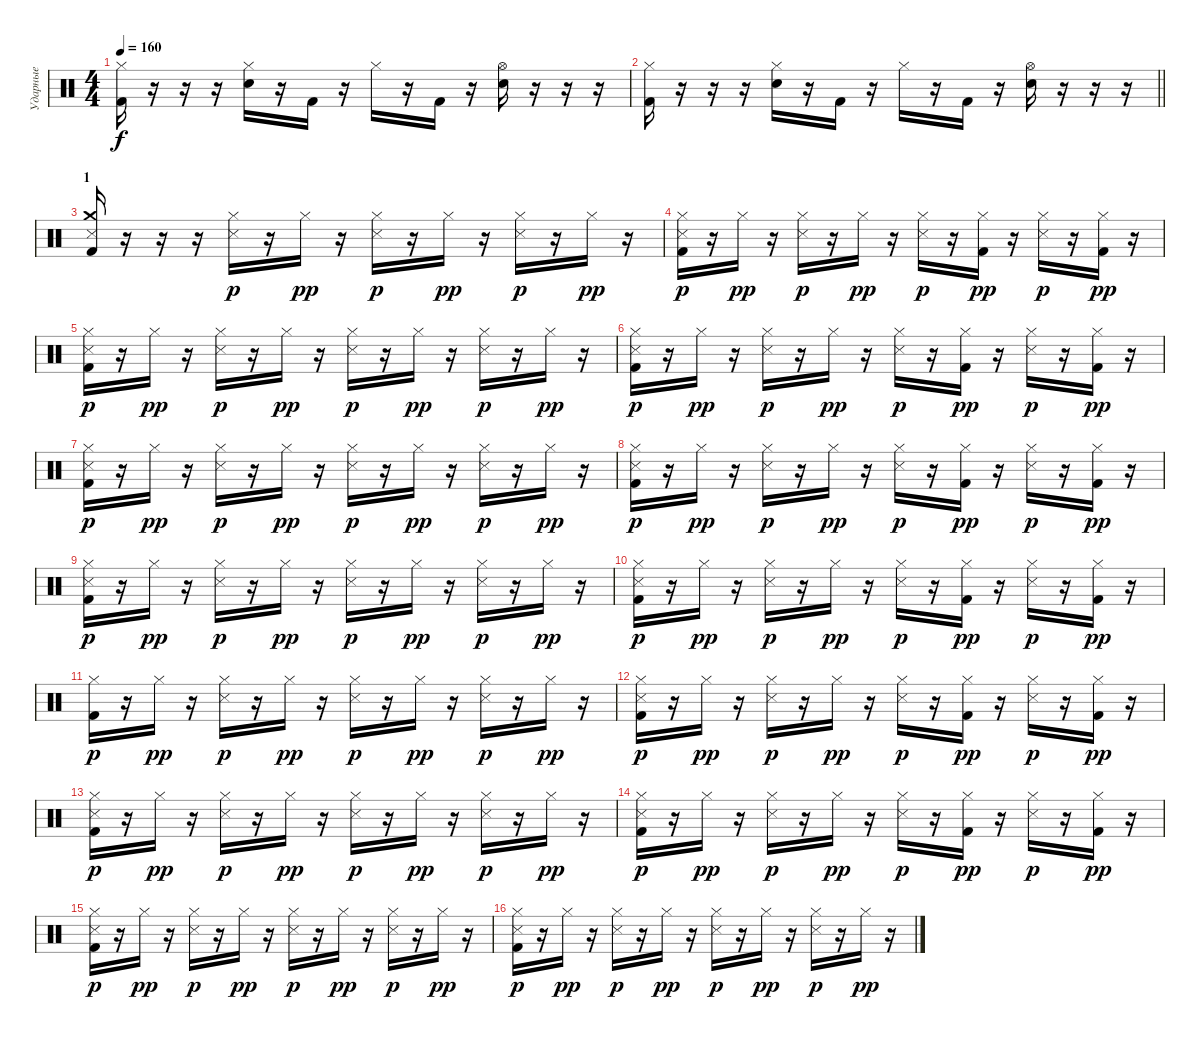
\track ("Ударные" "Ударные") {instrument percussion}
\staff {score}
\articulation defaults
\ts (4 4)
\tempo 160
\clef neutral
\ks c
("Hi-Hat (closed)" "Kick (hit) 2").16{dy f} r.16 r.16 r.16 ("Hi-Hat (closed)" "Electric Snare (hit)").16 r.16 "Kick (hit) 2".16 r.16 "Hi-Hat (closed)".16 r.16 "Kick (hit) 2".16 r.16 ("Hi-Hat (open)" "Electric Snare (hit)").16 r.16 r.16 r.16 |
\barLineRight lightlight
("Hi-Hat (closed)" "Kick (hit) 2").16 r.16 r.16 r.16 ("Hi-Hat (closed)" "Electric Snare (hit)").16 r.16 "Kick (hit) 2".16 r.16 "Hi-Hat (closed)".16 r.16 "Kick (hit) 2".16 r.16 ("Hi-Hat (open)" "Electric Snare (hit)").16 r.16 r.16 r.16 |
\section ("" "1")
("Crash medium (hit)" "Snare (side stick) 3" "Kick (hit) 2").16 r.16 r.16 r.16 ("Hi-Hat (closed)" "Snare (side stick) 3").16{dy p} r.16 "Hi-Hat (closed)".16{dy pp} r.16 ("Hi-Hat (closed)" "Snare (side stick) 3").16{dy p} r.16 "Hi-Hat (closed)".16{dy pp} r.16 ("Hi-Hat (closed)" "Snare (side stick) 3").16{dy p} r.16 "Hi-Hat (closed)".16{dy pp} r.16 |
("Hi-Hat (closed)" "Snare (side stick) 3" "Kick (hit) 2").16{dy p} r.16 "Hi-Hat (closed)".16{dy pp} r.16 ("Hi-Hat (closed)" "Snare (side stick) 3").16{dy p} r.16 "Hi-Hat (closed)".16{dy pp} r.16 ("Hi-Hat (closed)" "Snare (side stick) 3").16{dy p} r.16 ("Hi-Hat (closed)" "Kick (hit) 2").16{dy pp} r.16 ("Hi-Hat (closed)" "Snare (side stick) 3").16{dy p} r.16 ("Hi-Hat (closed)" "Kick (hit) 2").16{dy pp} r.16 |
("Hi-Hat (closed)" "Snare (side stick) 3" "Kick (hit) 2").16{dy p} r.16 "Hi-Hat (closed)".16{dy pp} r.16 ("Hi-Hat (closed)" "Snare (side stick) 3").16{dy p} r.16 "Hi-Hat (closed)".16{dy pp} r.16 ("Hi-Hat (closed)" "Snare (side stick) 3").16{dy p} r.16 "Hi-Hat (closed)".16{dy pp} r.16 ("Hi-Hat (closed)" "Snare (side stick) 3").16{dy p} r.16 "Hi-Hat (closed)".16{dy pp} r.16 |
("Hi-Hat (closed)" "Snare (side stick) 3" "Kick (hit) 2").16{dy p} r.16 "Hi-Hat (closed)".16{dy pp} r.16 ("Hi-Hat (closed)" "Snare (side stick) 3").16{dy p} r.16 "Hi-Hat (closed)".16{dy pp} r.16 ("Hi-Hat (closed)" "Snare (side stick) 3").16{dy p} r.16 ("Hi-Hat (closed)" "Kick (hit) 2").16{dy pp} r.16 ("Hi-Hat (closed)" "Snare (side stick) 3").16{dy p} r.16 ("Hi-Hat (closed)" "Kick (hit) 2").16{dy pp} r.16 |
("Hi-Hat (closed)" "Snare (side stick) 3" "Kick (hit) 2").16{dy p} r.16 "Hi-Hat (closed)".16{dy pp} r.16 ("Hi-Hat (closed)" "Snare (side stick) 3").16{dy p} r.16 "Hi-Hat (closed)".16{dy pp} r.16 ("Hi-Hat (closed)" "Snare (side stick) 3").16{dy p} r.16 "Hi-Hat (closed)".16{dy pp} r.16 ("Hi-Hat (closed)" "Snare (side stick) 3").16{dy p} r.16 "Hi-Hat (closed)".16{dy pp} r.16 |
("Hi-Hat (closed)" "Snare (side stick) 3" "Kick (hit) 2").16{dy p} r.16 "Hi-Hat (closed)".16{dy pp} r.16 ("Hi-Hat (closed)" "Snare (side stick) 3").16{dy p} r.16 "Hi-Hat (closed)".16{dy pp} r.16 ("Hi-Hat (closed)" "Snare (side stick) 3").16{dy p} r.16 ("Hi-Hat (closed)" "Kick (hit) 2").16{dy pp} r.16 ("Hi-Hat (closed)" "Snare (side stick) 3").16{dy p} r.16 ("Hi-Hat (closed)" "Kick (hit) 2").16{dy pp} r.16 |
("Hi-Hat (closed)" "Snare (side stick) 3" "Kick (hit) 2").16{dy p} r.16 "Hi-Hat (closed)".16{dy pp} r.16 ("Hi-Hat (closed)" "Snare (side stick) 3").16{dy p} r.16 "Hi-Hat (closed)".16{dy pp} r.16 ("Hi-Hat (closed)" "Snare (side stick) 3").16{dy p} r.16 "Hi-Hat (closed)".16{dy pp} r.16 ("Hi-Hat (closed)" "Snare (side stick) 3").16{dy p} r.16 "Hi-Hat (closed)".16{dy pp} r.16 |
("Hi-Hat (closed)" "Snare (side stick) 3" "Kick (hit) 2").16{dy p} r.16 "Hi-Hat (closed)".16{dy pp} r.16 ("Hi-Hat (closed)" "Snare (side stick) 3").16{dy p} r.16 "Hi-Hat (closed)".16{dy pp} r.16 ("Hi-Hat (closed)" "Snare (side stick) 3").16{dy p} r.16 ("Hi-Hat (closed)" "Kick (hit) 2").16{dy pp} r.16 ("Hi-Hat (closed)" "Snare (side stick) 3").16{dy p} r.16 ("Hi-Hat (closed)" "Kick (hit) 2").16{dy pp} r.16 |
("Hi-Hat (closed)" "Kick (hit) 2").16{dy p} r.16 "Hi-Hat (closed)".16{dy pp} r.16 ("Hi-Hat (closed)" "Snare (side stick) 3").16{dy p} r.16 "Hi-Hat (closed)".16{dy pp} r.16 ("Hi-Hat (closed)" "Snare (side stick) 3").16{dy p} r.16 "Hi-Hat (closed)".16{dy pp} r.16 ("Hi-Hat (closed)" "Snare (side stick) 3").16{dy p} r.16 "Hi-Hat (closed)".16{dy pp} r.16 |
("Hi-Hat (closed)" "Snare (side stick) 3" "Kick (hit) 2").16{dy p} r.16 "Hi-Hat (closed)".16{dy pp} r.16 ("Hi-Hat (closed)" "Snare (side stick) 3").16{dy p} r.16 "Hi-Hat (closed)".16{dy pp} r.16 ("Hi-Hat (closed)" "Snare (side stick) 3").16{dy p} r.16 ("Hi-Hat (closed)" "Kick (hit) 2").16{dy pp} r.16 ("Hi-Hat (closed)" "Snare (side stick) 3").16{dy p} r.16 ("Hi-Hat (closed)" "Kick (hit) 2").16{dy pp} r.16 |
("Hi-Hat (closed)" "Snare (side stick) 3" "Kick (hit) 2").16{dy p} r.16 "Hi-Hat (closed)".16{dy pp} r.16 ("Hi-Hat (closed)" "Snare (side stick) 3").16{dy p} r.16 "Hi-Hat (closed)".16{dy pp} r.16 ("Hi-Hat (closed)" "Snare (side stick) 3").16{dy p} r.16 "Hi-Hat (closed)".16{dy pp} r.16 ("Hi-Hat (closed)" "Snare (side stick) 3").16{dy p} r.16 "Hi-Hat (closed)".16{dy pp} r.16 |
("Hi-Hat (closed)" "Snare (side stick) 3" "Kick (hit) 2").16{dy p} r.16 "Hi-Hat (closed)".16{dy pp} r.16 ("Hi-Hat (closed)" "Snare (side stick) 3").16{dy p} r.16 "Hi-Hat (closed)".16{dy pp} r.16 ("Hi-Hat (closed)" "Snare (side stick) 3").16{dy p} r.16 ("Hi-Hat (closed)" "Kick (hit) 2").16{dy pp} r.16 ("Hi-Hat (closed)" "Snare (side stick) 3").16{dy p} r.16 ("Hi-Hat (closed)" "Kick (hit) 2").16{dy pp} r.16 |
("Hi-Hat (closed)" "Snare (side stick) 3" "Kick (hit) 2").16{dy p} r.16 "Hi-Hat (closed)".16{dy pp} r.16 ("Hi-Hat (closed)" "Snare (side stick) 3").16{dy p} r.16 "Hi-Hat (closed)".16{dy pp} r.16 ("Hi-Hat (closed)" "Snare (side stick) 3").16{dy p} r.16 "Hi-Hat (closed)".16{dy pp} r.16 ("Hi-Hat (closed)" "Snare (side stick) 3").16{dy p} r.16 "Hi-Hat (closed)".16{dy pp} r.16 |
("Hi-Hat (closed)" "Snare (side stick) 3" "Kick (hit) 2").16{dy p} r.16 "Hi-Hat (closed)".16{dy pp} r.16 ("Hi-Hat (closed)" "Snare (side stick) 3").16{dy p} r.16 "Hi-Hat (closed)".16{dy pp} r.16 ("Hi-Hat (closed)" "Snare (side stick) 3").16{dy p} r.16 "Hi-Hat (closed)".16{dy pp} r.16 ("Hi-Hat (closed)" "Snare (side stick) 3").16{dy p} r.16 "Hi-Hat (closed)".16{dy pp} r.16
